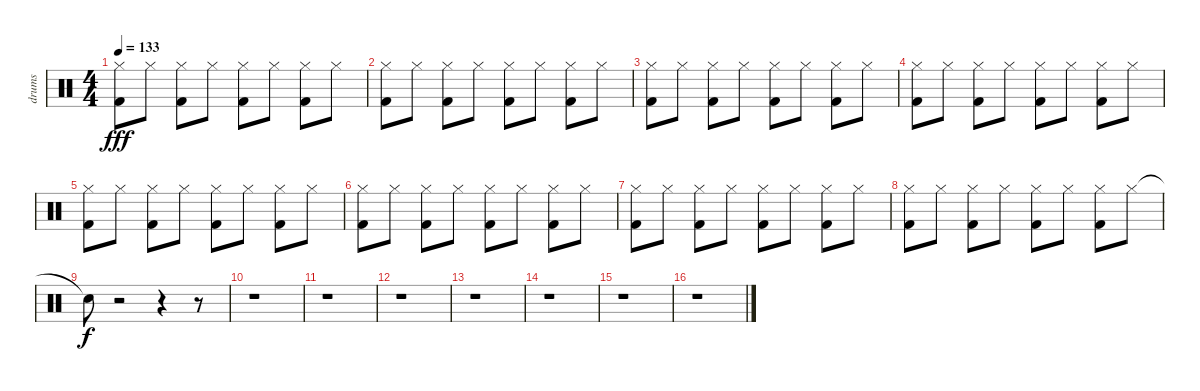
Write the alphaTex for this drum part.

\track ("drums" "drums") {instrument percussion}
\staff {score}
\articulation defaults
\ts (4 4)
\tempo 133
\clef neutral
\ks c
("Kick (hit) 2" "Hi-Hat (closed)").8{dy fff} "Hi-Hat (closed)".8 ("Kick (hit) 2" "Hi-Hat (closed)").8 "Hi-Hat (closed)".8 ("Kick (hit) 2" "Hi-Hat (closed)").8 "Hi-Hat (closed)".8 ("Kick (hit) 2" "Hi-Hat (closed)").8 "Hi-Hat (closed)".8 |
("Kick (hit) 2" "Hi-Hat (closed)").8 "Hi-Hat (closed)".8 ("Kick (hit) 2" "Hi-Hat (closed)").8 "Hi-Hat (closed)".8 ("Kick (hit) 2" "Hi-Hat (closed)").8 "Hi-Hat (closed)".8 ("Kick (hit) 2" "Hi-Hat (closed)").8 "Hi-Hat (closed)".8 |
("Kick (hit) 2" "Hi-Hat (closed)").8 "Hi-Hat (closed)".8 ("Kick (hit) 2" "Hi-Hat (closed)").8 "Hi-Hat (closed)".8 ("Kick (hit) 2" "Hi-Hat (closed)").8 "Hi-Hat (closed)".8 ("Kick (hit) 2" "Hi-Hat (closed)").8 "Hi-Hat (closed)".8 |
("Kick (hit) 2" "Hi-Hat (closed)").8 "Hi-Hat (closed)".8 ("Kick (hit) 2" "Hi-Hat (closed)").8 "Hi-Hat (closed)".8 ("Kick (hit) 2" "Hi-Hat (closed)").8 "Hi-Hat (closed)".8 ("Kick (hit) 2" "Hi-Hat (closed)").8 "Hi-Hat (closed)".8 |
("Kick (hit) 2" "Hi-Hat (closed)").8 "Hi-Hat (closed)".8 ("Kick (hit) 2" "Hi-Hat (closed)").8 "Hi-Hat (closed)".8 ("Kick (hit) 2" "Hi-Hat (closed)").8 "Hi-Hat (closed)".8 ("Kick (hit) 2" "Hi-Hat (closed)").8 "Hi-Hat (closed)".8 |
("Kick (hit) 2" "Hi-Hat (closed)").8 "Hi-Hat (closed)".8 ("Kick (hit) 2" "Hi-Hat (closed)").8 "Hi-Hat (closed)".8 ("Kick (hit) 2" "Hi-Hat (closed)").8 "Hi-Hat (closed)".8 ("Kick (hit) 2" "Hi-Hat (closed)").8 "Hi-Hat (closed)".8 |
("Kick (hit) 2" "Hi-Hat (closed)").8 "Hi-Hat (closed)".8 ("Kick (hit) 2" "Hi-Hat (closed)").8 "Hi-Hat (closed)".8 ("Kick (hit) 2" "Hi-Hat (closed)").8 "Hi-Hat (closed)".8 ("Kick (hit) 2" "Hi-Hat (closed)").8 "Hi-Hat (closed)".8 |
("Kick (hit) 2" "Hi-Hat (closed)").8 "Hi-Hat (closed)".8 ("Kick (hit) 2" "Hi-Hat (closed)").8 "Hi-Hat (closed)".8 ("Kick (hit) 2" "Hi-Hat (closed)").8 "Hi-Hat (closed)".8 ("Kick (hit) 2" "Hi-Hat (closed)").8 "Hi-Hat (closed)".8 |
"Snare (hit)"{t}.8{dy f} r.2 r.4 r.8 |
r.1 |
r.1 |
r.1 |
r.1 |
r.1 |
r.1 |
r.1
